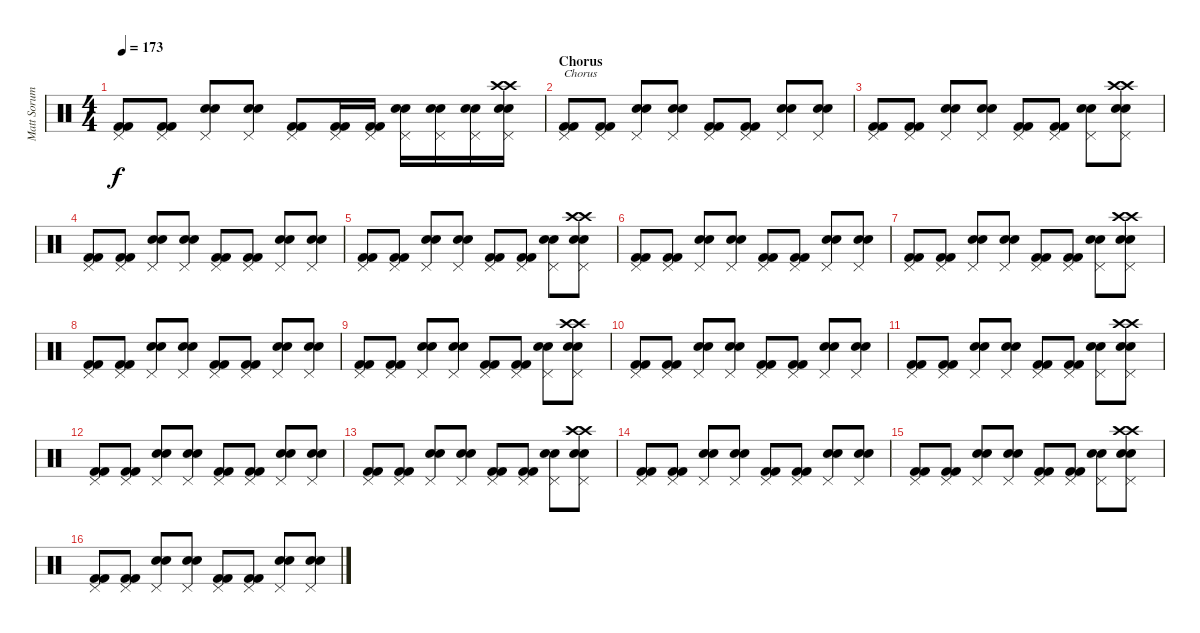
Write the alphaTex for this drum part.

\track ("Matt Sorum" "Matt Sorum") {instrument percussion}
\staff {score}
\articulation defaults
\ts (4 4)
\tempo 173
\clef neutral
\ks c
("Pedal Hi-Hat (hit)" "Kick (hit) 2" "Kick (hit) 2").8{dy f} ("Pedal Hi-Hat (hit)" "Kick (hit) 2" "Kick (hit) 2").8 ("Pedal Hi-Hat (hit)" "Snare (hit) 2" "Snare (hit) 2").8 ("Pedal Hi-Hat (hit)" "Snare (hit) 2" "Snare (hit) 2").8 ("Pedal Hi-Hat (hit)" "Kick (hit) 2" "Kick (hit) 2").8 ("Pedal Hi-Hat (hit)" "Kick (hit) 2" "Kick (hit) 2").16 ("Pedal Hi-Hat (hit)" "Kick (hit) 2" "Kick (hit) 2").16 ("Pedal Hi-Hat (hit)" "Snare (hit) 2" "Snare (hit) 2").16 ("Pedal Hi-Hat (hit)" "Snare (hit) 2" "Snare (hit) 2").16 ("Pedal Hi-Hat (hit)" "Snare (hit) 2" "Snare (hit) 2").16 ("Crash high (hit)" "Crash high (hit)" "Pedal Hi-Hat (hit)" "Snare (hit) 2" "Snare (hit) 2").16 |
\section ("" "Chorus")
("Pedal Hi-Hat (hit)" "Kick (hit) 2" "Kick (hit) 2").8{txt "Chorus"} ("Pedal Hi-Hat (hit)" "Kick (hit) 2" "Kick (hit) 2").8 ("Pedal Hi-Hat (hit)" "Snare (hit) 2" "Snare (hit) 2").8 ("Pedal Hi-Hat (hit)" "Snare (hit) 2" "Snare (hit) 2").8 ("Pedal Hi-Hat (hit)" "Kick (hit) 2" "Kick (hit) 2").8 ("Pedal Hi-Hat (hit)" "Kick (hit) 2" "Kick (hit) 2").8 ("Pedal Hi-Hat (hit)" "Snare (hit) 2" "Snare (hit) 2").8 ("Pedal Hi-Hat (hit)" "Snare (hit) 2" "Snare (hit) 2").8 |
("Pedal Hi-Hat (hit)" "Kick (hit) 2" "Kick (hit) 2").8 ("Pedal Hi-Hat (hit)" "Kick (hit) 2" "Kick (hit) 2").8 ("Pedal Hi-Hat (hit)" "Snare (hit) 2" "Snare (hit) 2").8 ("Pedal Hi-Hat (hit)" "Snare (hit) 2" "Snare (hit) 2").8 ("Pedal Hi-Hat (hit)" "Kick (hit) 2" "Kick (hit) 2").8 ("Pedal Hi-Hat (hit)" "Kick (hit) 2" "Kick (hit) 2").8 ("Pedal Hi-Hat (hit)" "Snare (hit) 2" "Snare (hit) 2").8 ("Crash high (hit)" "Crash high (hit)" "Pedal Hi-Hat (hit)" "Snare (hit) 2" "Snare (hit) 2").8 |
("Pedal Hi-Hat (hit)" "Kick (hit) 2" "Kick (hit) 2").8 ("Pedal Hi-Hat (hit)" "Kick (hit) 2" "Kick (hit) 2").8 ("Pedal Hi-Hat (hit)" "Snare (hit) 2" "Snare (hit) 2").8 ("Pedal Hi-Hat (hit)" "Snare (hit) 2" "Snare (hit) 2").8 ("Pedal Hi-Hat (hit)" "Kick (hit) 2" "Kick (hit) 2").8 ("Pedal Hi-Hat (hit)" "Kick (hit) 2" "Kick (hit) 2").8 ("Pedal Hi-Hat (hit)" "Snare (hit) 2" "Snare (hit) 2").8 ("Pedal Hi-Hat (hit)" "Snare (hit) 2" "Snare (hit) 2").8 |
("Pedal Hi-Hat (hit)" "Kick (hit) 2" "Kick (hit) 2").8 ("Pedal Hi-Hat (hit)" "Kick (hit) 2" "Kick (hit) 2").8 ("Pedal Hi-Hat (hit)" "Snare (hit) 2" "Snare (hit) 2").8 ("Pedal Hi-Hat (hit)" "Snare (hit) 2" "Snare (hit) 2").8 ("Pedal Hi-Hat (hit)" "Kick (hit) 2" "Kick (hit) 2").8 ("Pedal Hi-Hat (hit)" "Kick (hit) 2" "Kick (hit) 2").8 ("Pedal Hi-Hat (hit)" "Snare (hit) 2" "Snare (hit) 2").8 ("Crash high (hit)" "Crash high (hit)" "Pedal Hi-Hat (hit)" "Snare (hit) 2" "Snare (hit) 2").8 |
("Pedal Hi-Hat (hit)" "Kick (hit) 2" "Kick (hit) 2").8 ("Pedal Hi-Hat (hit)" "Kick (hit) 2" "Kick (hit) 2").8 ("Pedal Hi-Hat (hit)" "Snare (hit) 2" "Snare (hit) 2").8 ("Pedal Hi-Hat (hit)" "Snare (hit) 2" "Snare (hit) 2").8 ("Pedal Hi-Hat (hit)" "Kick (hit) 2" "Kick (hit) 2").8 ("Pedal Hi-Hat (hit)" "Kick (hit) 2" "Kick (hit) 2").8 ("Pedal Hi-Hat (hit)" "Snare (hit) 2" "Snare (hit) 2").8 ("Pedal Hi-Hat (hit)" "Snare (hit) 2" "Snare (hit) 2").8 |
("Pedal Hi-Hat (hit)" "Kick (hit) 2" "Kick (hit) 2").8 ("Pedal Hi-Hat (hit)" "Kick (hit) 2" "Kick (hit) 2").8 ("Pedal Hi-Hat (hit)" "Snare (hit) 2" "Snare (hit) 2").8 ("Pedal Hi-Hat (hit)" "Snare (hit) 2" "Snare (hit) 2").8 ("Pedal Hi-Hat (hit)" "Kick (hit) 2" "Kick (hit) 2").8 ("Pedal Hi-Hat (hit)" "Kick (hit) 2" "Kick (hit) 2").8 ("Pedal Hi-Hat (hit)" "Snare (hit) 2" "Snare (hit) 2").8 ("Crash high (hit)" "Crash high (hit)" "Pedal Hi-Hat (hit)" "Snare (hit) 2" "Snare (hit) 2").8 |
("Pedal Hi-Hat (hit)" "Kick (hit) 2" "Kick (hit) 2").8 ("Pedal Hi-Hat (hit)" "Kick (hit) 2" "Kick (hit) 2").8 ("Pedal Hi-Hat (hit)" "Snare (hit) 2" "Snare (hit) 2").8 ("Pedal Hi-Hat (hit)" "Snare (hit) 2" "Snare (hit) 2").8 ("Pedal Hi-Hat (hit)" "Kick (hit) 2" "Kick (hit) 2").8 ("Pedal Hi-Hat (hit)" "Kick (hit) 2" "Kick (hit) 2").8 ("Pedal Hi-Hat (hit)" "Snare (hit) 2" "Snare (hit) 2").8 ("Pedal Hi-Hat (hit)" "Snare (hit) 2" "Snare (hit) 2").8 |
("Pedal Hi-Hat (hit)" "Kick (hit) 2" "Kick (hit) 2").8 ("Pedal Hi-Hat (hit)" "Kick (hit) 2" "Kick (hit) 2").8 ("Pedal Hi-Hat (hit)" "Snare (hit) 2" "Snare (hit) 2").8 ("Pedal Hi-Hat (hit)" "Snare (hit) 2" "Snare (hit) 2").8 ("Pedal Hi-Hat (hit)" "Kick (hit) 2" "Kick (hit) 2").8 ("Pedal Hi-Hat (hit)" "Kick (hit) 2" "Kick (hit) 2").8 ("Pedal Hi-Hat (hit)" "Snare (hit) 2" "Snare (hit) 2").8 ("Crash high (hit)" "Crash high (hit)" "Pedal Hi-Hat (hit)" "Snare (hit) 2" "Snare (hit) 2").8 |
("Pedal Hi-Hat (hit)" "Kick (hit) 2" "Kick (hit) 2").8 ("Pedal Hi-Hat (hit)" "Kick (hit) 2" "Kick (hit) 2").8 ("Pedal Hi-Hat (hit)" "Snare (hit) 2" "Snare (hit) 2").8 ("Pedal Hi-Hat (hit)" "Snare (hit) 2" "Snare (hit) 2").8 ("Pedal Hi-Hat (hit)" "Kick (hit) 2" "Kick (hit) 2").8 ("Pedal Hi-Hat (hit)" "Kick (hit) 2" "Kick (hit) 2").8 ("Pedal Hi-Hat (hit)" "Snare (hit) 2" "Snare (hit) 2").8 ("Pedal Hi-Hat (hit)" "Snare (hit) 2" "Snare (hit) 2").8 |
("Pedal Hi-Hat (hit)" "Kick (hit) 2" "Kick (hit) 2").8 ("Pedal Hi-Hat (hit)" "Kick (hit) 2" "Kick (hit) 2").8 ("Pedal Hi-Hat (hit)" "Snare (hit) 2" "Snare (hit) 2").8 ("Pedal Hi-Hat (hit)" "Snare (hit) 2" "Snare (hit) 2").8 ("Pedal Hi-Hat (hit)" "Kick (hit) 2" "Kick (hit) 2").8 ("Pedal Hi-Hat (hit)" "Kick (hit) 2" "Kick (hit) 2").8 ("Pedal Hi-Hat (hit)" "Snare (hit) 2" "Snare (hit) 2").8 ("Crash high (hit)" "Crash high (hit)" "Pedal Hi-Hat (hit)" "Snare (hit) 2" "Snare (hit) 2").8 |
("Pedal Hi-Hat (hit)" "Kick (hit) 2" "Kick (hit) 2").8 ("Pedal Hi-Hat (hit)" "Kick (hit) 2" "Kick (hit) 2").8 ("Pedal Hi-Hat (hit)" "Snare (hit) 2" "Snare (hit) 2").8 ("Pedal Hi-Hat (hit)" "Snare (hit) 2" "Snare (hit) 2").8 ("Pedal Hi-Hat (hit)" "Kick (hit) 2" "Kick (hit) 2").8 ("Pedal Hi-Hat (hit)" "Kick (hit) 2" "Kick (hit) 2").8 ("Pedal Hi-Hat (hit)" "Snare (hit) 2" "Snare (hit) 2").8 ("Pedal Hi-Hat (hit)" "Snare (hit) 2" "Snare (hit) 2").8 |
("Pedal Hi-Hat (hit)" "Kick (hit) 2" "Kick (hit) 2").8 ("Pedal Hi-Hat (hit)" "Kick (hit) 2" "Kick (hit) 2").8 ("Pedal Hi-Hat (hit)" "Snare (hit) 2" "Snare (hit) 2").8 ("Pedal Hi-Hat (hit)" "Snare (hit) 2" "Snare (hit) 2").8 ("Pedal Hi-Hat (hit)" "Kick (hit) 2" "Kick (hit) 2").8 ("Pedal Hi-Hat (hit)" "Kick (hit) 2" "Kick (hit) 2").8 ("Pedal Hi-Hat (hit)" "Snare (hit) 2" "Snare (hit) 2").8 ("Crash high (hit)" "Crash high (hit)" "Pedal Hi-Hat (hit)" "Snare (hit) 2" "Snare (hit) 2").8 |
("Pedal Hi-Hat (hit)" "Kick (hit) 2" "Kick (hit) 2").8 ("Pedal Hi-Hat (hit)" "Kick (hit) 2" "Kick (hit) 2").8 ("Pedal Hi-Hat (hit)" "Snare (hit) 2" "Snare (hit) 2").8 ("Pedal Hi-Hat (hit)" "Snare (hit) 2" "Snare (hit) 2").8 ("Pedal Hi-Hat (hit)" "Kick (hit) 2" "Kick (hit) 2").8 ("Pedal Hi-Hat (hit)" "Kick (hit) 2" "Kick (hit) 2").8 ("Pedal Hi-Hat (hit)" "Snare (hit) 2" "Snare (hit) 2").8 ("Pedal Hi-Hat (hit)" "Snare (hit) 2" "Snare (hit) 2").8 |
("Pedal Hi-Hat (hit)" "Kick (hit) 2" "Kick (hit) 2").8 ("Pedal Hi-Hat (hit)" "Kick (hit) 2" "Kick (hit) 2").8 ("Pedal Hi-Hat (hit)" "Snare (hit) 2" "Snare (hit) 2").8 ("Pedal Hi-Hat (hit)" "Snare (hit) 2" "Snare (hit) 2").8 ("Pedal Hi-Hat (hit)" "Kick (hit) 2" "Kick (hit) 2").8 ("Pedal Hi-Hat (hit)" "Kick (hit) 2" "Kick (hit) 2").8 ("Pedal Hi-Hat (hit)" "Snare (hit) 2" "Snare (hit) 2").8 ("Crash high (hit)" "Crash high (hit)" "Pedal Hi-Hat (hit)" "Snare (hit) 2" "Snare (hit) 2").8 |
("Pedal Hi-Hat (hit)" "Kick (hit) 2" "Kick (hit) 2").8 ("Pedal Hi-Hat (hit)" "Kick (hit) 2" "Kick (hit) 2").8 ("Pedal Hi-Hat (hit)" "Snare (hit) 2" "Snare (hit) 2").8 ("Pedal Hi-Hat (hit)" "Snare (hit) 2" "Snare (hit) 2").8 ("Pedal Hi-Hat (hit)" "Kick (hit) 2" "Kick (hit) 2").8 ("Pedal Hi-Hat (hit)" "Kick (hit) 2" "Kick (hit) 2").8 ("Pedal Hi-Hat (hit)" "Snare (hit) 2" "Snare (hit) 2").8 ("Pedal Hi-Hat (hit)" "Snare (hit) 2" "Snare (hit) 2").8
